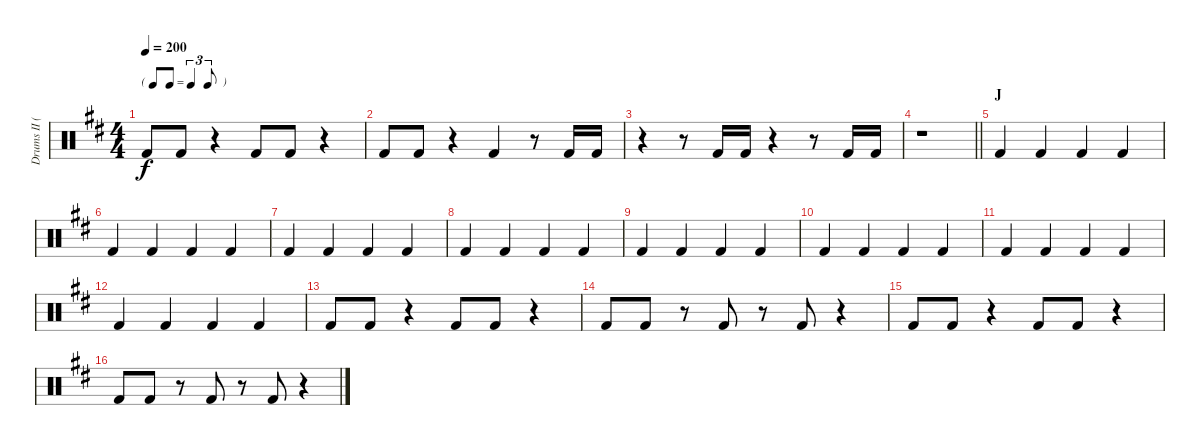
\track ("Drums II (Ruka)" "Drums II (") {instrument percussion}
\staff {score}
\articulation defaults
\ts (4 4)
\tf triplet8th
\tempo 200
\clef neutral
\ks d "Kick (hit) 2".8{dy f} "Kick (hit) 2".8
r.4 "Kick (hit) 2".8 "Kick (hit) 2".8 r.4 |
"Kick (hit) 2".8 "Kick (hit) 2".8 r.4 "Kick (hit) 2".4 r.8 "Kick (hit) 2".16 "Kick (hit) 2".16 |
r.4 r.8 "Kick (hit) 2".16 "Kick (hit) 2".16 r.4 r.8 "Kick (hit) 2".16 "Kick (hit) 2".16 |
\barLineRight lightlight
r.1 |
\section ("" "J")
"Kick (hit) 2".4 "Kick (hit) 2".4 "Kick (hit) 2".4 "Kick (hit) 2".4 |
"Kick (hit) 2".4 "Kick (hit) 2".4 "Kick (hit) 2".4 "Kick (hit) 2".4 |
"Kick (hit) 2".4 "Kick (hit) 2".4 "Kick (hit) 2".4 "Kick (hit) 2".4 |
"Kick (hit) 2".4 "Kick (hit) 2".4 "Kick (hit) 2".4 "Kick (hit) 2".4 |
"Kick (hit) 2".4 "Kick (hit) 2".4 "Kick (hit) 2".4 "Kick (hit) 2".4 |
"Kick (hit) 2".4 "Kick (hit) 2".4 "Kick (hit) 2".4 "Kick (hit) 2".4 |
"Kick (hit) 2".4 "Kick (hit) 2".4 "Kick (hit) 2".4 "Kick (hit) 2".4 |
"Kick (hit) 2".4 "Kick (hit) 2".4 "Kick (hit) 2".4 "Kick (hit) 2".4 |
"Kick (hit) 2".8 "Kick (hit) 2".8 r.4 "Kick (hit) 2".8 "Kick (hit) 2".8 r.4 |
"Kick (hit) 2".8 "Kick (hit) 2".8 r.8 "Kick (hit) 2".8 r.8 "Kick (hit) 2".8 r.4 |
"Kick (hit) 2".8 "Kick (hit) 2".8 r.4 "Kick (hit) 2".8 "Kick (hit) 2".8 r.4 |
"Kick (hit) 2".8 "Kick (hit) 2".8 r.8 "Kick (hit) 2".8 r.8 "Kick (hit) 2".8 r.4
